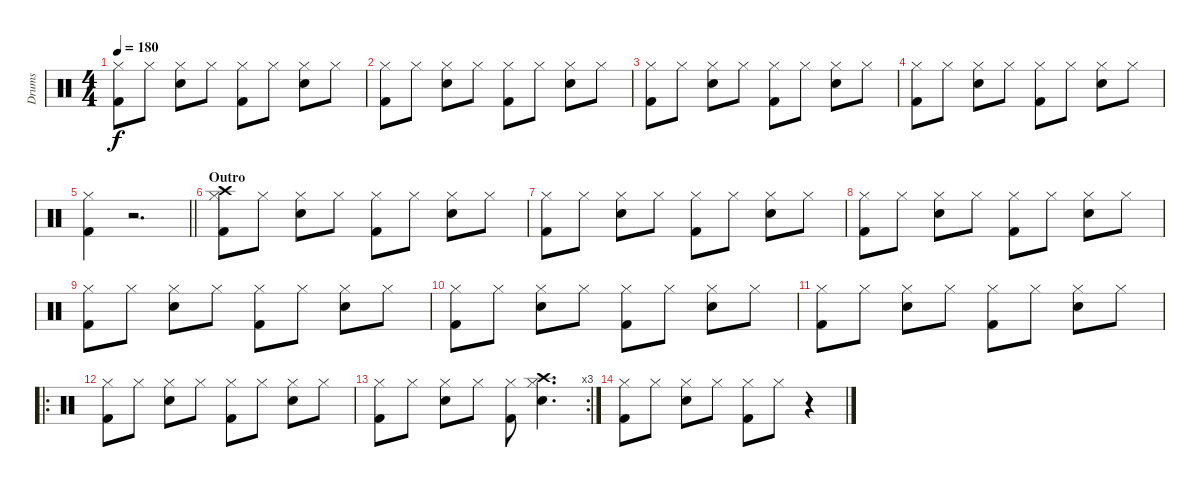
\track ("Drums" "Drums") {instrument percussion}
\staff {score}
\articulation defaults
\ts (4 4)
\tempo 180
\clef neutral
\ks c
("Hi-Hat (closed)" "Kick (hit) 2").8{dy f} "Hi-Hat (closed)".8 ("Hi-Hat (closed)" "Snare (hit) 2").8 "Hi-Hat (closed)".8 ("Hi-Hat (closed)" "Kick (hit) 2").8 "Hi-Hat (closed)".8 ("Hi-Hat (closed)" "Snare (hit) 2").8 "Hi-Hat (closed)".8 |
("Hi-Hat (closed)" "Kick (hit) 2").8 "Hi-Hat (closed)".8 ("Hi-Hat (closed)" "Snare (hit) 2").8 "Hi-Hat (closed)".8 ("Hi-Hat (closed)" "Kick (hit) 2").8 "Hi-Hat (closed)".8 ("Hi-Hat (closed)" "Snare (hit) 2").8 "Hi-Hat (closed)".8 |
("Hi-Hat (closed)" "Kick (hit) 2").8 "Hi-Hat (closed)".8 ("Hi-Hat (closed)" "Snare (hit) 2").8 "Hi-Hat (closed)".8 ("Hi-Hat (closed)" "Kick (hit) 2").8 "Hi-Hat (closed)".8 ("Hi-Hat (closed)" "Snare (hit) 2").8 "Hi-Hat (closed)".8 |
("Hi-Hat (closed)" "Kick (hit) 2").8 "Hi-Hat (closed)".8 ("Hi-Hat (closed)" "Snare (hit) 2").8 "Hi-Hat (closed)".8 ("Hi-Hat (closed)" "Kick (hit) 2").8 "Hi-Hat (closed)".8 ("Hi-Hat (closed)" "Snare (hit) 2").8 "Hi-Hat (closed)".8 |
\barLineRight lightlight
("Hi-Hat (closed)" "Kick (hit) 2").4 r.2{d} |
\section ("" "Outro")
("Crash high (hit)" "Hi-Hat (closed)" "Kick (hit) 2").8 "Hi-Hat (closed)".8 ("Hi-Hat (closed)" "Snare (hit) 2").8 "Hi-Hat (closed)".8 ("Hi-Hat (closed)" "Kick (hit) 2").8 "Hi-Hat (closed)".8 ("Hi-Hat (closed)" "Snare (hit) 2").8 "Hi-Hat (closed)".8 |
("Hi-Hat (closed)" "Kick (hit) 2").8 "Hi-Hat (closed)".8 ("Hi-Hat (closed)" "Snare (hit) 2").8 "Hi-Hat (closed)".8 ("Hi-Hat (closed)" "Kick (hit) 2").8 "Hi-Hat (closed)".8 ("Hi-Hat (closed)" "Snare (hit) 2").8 "Hi-Hat (closed)".8 |
("Hi-Hat (closed)" "Kick (hit) 2").8 "Hi-Hat (closed)".8 ("Hi-Hat (closed)" "Snare (hit) 2").8 "Hi-Hat (closed)".8 ("Hi-Hat (closed)" "Kick (hit) 2").8 "Hi-Hat (closed)".8 ("Hi-Hat (closed)" "Snare (hit) 2").8 "Hi-Hat (closed)".8 |
("Hi-Hat (closed)" "Kick (hit) 2").8 "Hi-Hat (closed)".8 ("Hi-Hat (closed)" "Snare (hit) 2").8 "Hi-Hat (closed)".8 ("Hi-Hat (closed)" "Kick (hit) 2").8 "Hi-Hat (closed)".8 ("Hi-Hat (closed)" "Snare (hit) 2").8 "Hi-Hat (closed)".8 |
("Hi-Hat (closed)" "Kick (hit) 2").8 "Hi-Hat (closed)".8 ("Hi-Hat (closed)" "Snare (hit) 2").8 "Hi-Hat (closed)".8 ("Hi-Hat (closed)" "Kick (hit) 2").8 "Hi-Hat (closed)".8 ("Hi-Hat (closed)" "Snare (hit) 2").8 "Hi-Hat (closed)".8 |
("Hi-Hat (closed)" "Kick (hit) 2").8 "Hi-Hat (closed)".8 ("Hi-Hat (closed)" "Snare (hit) 2").8 "Hi-Hat (closed)".8 ("Hi-Hat (closed)" "Kick (hit) 2").8 "Hi-Hat (closed)".8 ("Hi-Hat (closed)" "Snare (hit) 2").8 "Hi-Hat (closed)".8 |
\ro
("Hi-Hat (closed)" "Kick (hit) 2").8 "Hi-Hat (closed)".8 ("Hi-Hat (closed)" "Snare (hit) 2").8 "Hi-Hat (closed)".8 ("Hi-Hat (closed)" "Kick (hit) 2").8 "Hi-Hat (closed)".8 ("Hi-Hat (closed)" "Snare (hit) 2").8 "Hi-Hat (closed)".8 |
\rc 3
("Hi-Hat (closed)" "Kick (hit) 2").8 "Hi-Hat (closed)".8 ("Hi-Hat (closed)" "Snare (hit) 2").8 "Hi-Hat (closed)".8 ("Hi-Hat (closed)" "Kick (hit) 2").8 ("Crash high (hit)" "Hi-Hat (closed)" "Snare (hit) 2").4{d} |
("Hi-Hat (closed)" "Kick (hit) 2").8 "Hi-Hat (closed)".8 ("Hi-Hat (closed)" "Snare (hit) 2").8 "Hi-Hat (closed)".8 ("Hi-Hat (closed)" "Kick (hit) 2").8 "Hi-Hat (closed)".8 r.4
